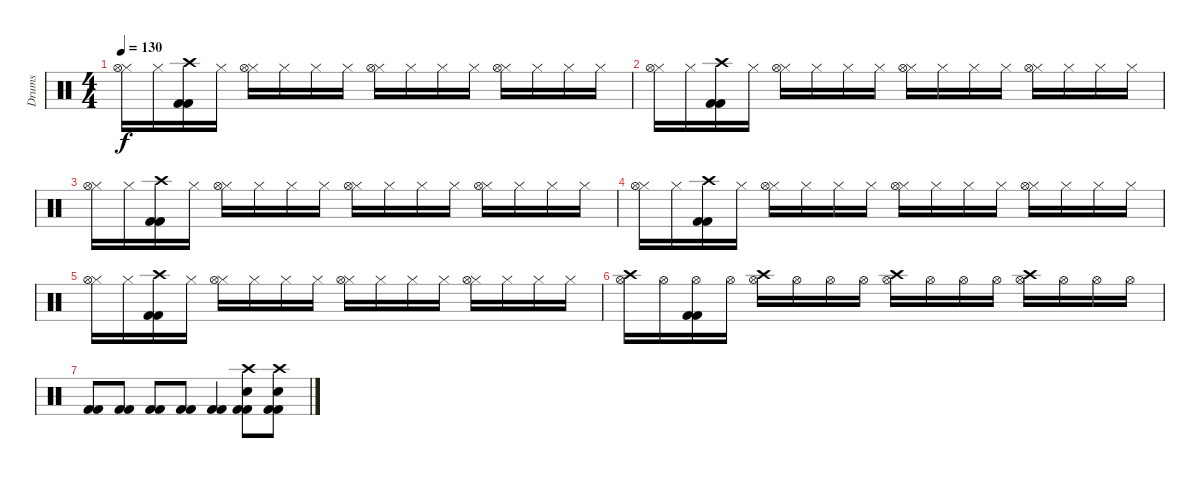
\track ("Drums" "Drums") {instrument percussion}
\staff {score}
\articulation defaults
\ts (4 4)
\tempo 130
\clef neutral
\ks c
("Hi-Hat (closed)" "Hi-Hat (open)").16{dy f} "Hi-Hat (closed)".16 ("Crash high (hit)" "Kick (hit) 2" "Kick (hit) 2").16 "Hi-Hat (closed)".16 ("Hi-Hat (closed)" "Hi-Hat (open)").16 "Hi-Hat (closed)".16 "Hi-Hat (closed)".16 "Hi-Hat (closed)".16 ("Hi-Hat (closed)" "Hi-Hat (open)").16 "Hi-Hat (closed)".16 "Hi-Hat (closed)".16 "Hi-Hat (closed)".16 ("Hi-Hat (closed)" "Hi-Hat (open)").16 "Hi-Hat (closed)".16 "Hi-Hat (closed)".16 "Hi-Hat (closed)".16 |
("Hi-Hat (closed)" "Hi-Hat (open)").16 "Hi-Hat (closed)".16 ("Crash high (hit)" "Kick (hit) 2" "Kick (hit) 2").16 "Hi-Hat (closed)".16 ("Hi-Hat (closed)" "Hi-Hat (open)").16 "Hi-Hat (closed)".16 "Hi-Hat (closed)".16 "Hi-Hat (closed)".16 ("Hi-Hat (closed)" "Hi-Hat (open)").16 "Hi-Hat (closed)".16 "Hi-Hat (closed)".16 "Hi-Hat (closed)".16 ("Hi-Hat (closed)" "Hi-Hat (open)").16 "Hi-Hat (closed)".16 "Hi-Hat (closed)".16 "Hi-Hat (closed)".16 |
("Hi-Hat (closed)" "Hi-Hat (open)").16 "Hi-Hat (closed)".16 ("Crash high (hit)" "Kick (hit) 2" "Kick (hit) 2").16 "Hi-Hat (closed)".16 ("Hi-Hat (closed)" "Hi-Hat (open)").16 "Hi-Hat (closed)".16 "Hi-Hat (closed)".16 "Hi-Hat (closed)".16 ("Hi-Hat (closed)" "Hi-Hat (open)").16 "Hi-Hat (closed)".16 "Hi-Hat (closed)".16 "Hi-Hat (closed)".16 ("Hi-Hat (closed)" "Hi-Hat (open)").16 "Hi-Hat (closed)".16 "Hi-Hat (closed)".16 "Hi-Hat (closed)".16 |
("Hi-Hat (closed)" "Hi-Hat (open)").16 "Hi-Hat (closed)".16 ("Crash high (hit)" "Kick (hit) 2" "Kick (hit) 2").16 "Hi-Hat (closed)".16 ("Hi-Hat (closed)" "Hi-Hat (open)").16 "Hi-Hat (closed)".16 "Hi-Hat (closed)".16 "Hi-Hat (closed)".16 ("Hi-Hat (closed)" "Hi-Hat (open)").16 "Hi-Hat (closed)".16 "Hi-Hat (closed)".16 "Hi-Hat (closed)".16 ("Hi-Hat (closed)" "Hi-Hat (open)").16 "Hi-Hat (closed)".16 "Hi-Hat (closed)".16 "Hi-Hat (closed)".16 |
("Hi-Hat (closed)" "Hi-Hat (open)").16 "Hi-Hat (closed)".16 ("Crash high (hit)" "Kick (hit) 2" "Kick (hit) 2").16 "Hi-Hat (closed)".16 ("Hi-Hat (closed)" "Hi-Hat (open)").16 "Hi-Hat (closed)".16 "Hi-Hat (closed)".16 "Hi-Hat (closed)".16 ("Hi-Hat (closed)" "Hi-Hat (open)").16 "Hi-Hat (closed)".16 "Hi-Hat (closed)".16 "Hi-Hat (closed)".16 ("Hi-Hat (closed)" "Hi-Hat (open)").16 "Hi-Hat (closed)".16 "Hi-Hat (closed)".16 "Hi-Hat (closed)".16 |
("Hi-Hat (open)" "Crash high (hit)").16 "Hi-Hat (open)".16 ("Hi-Hat (open)" "Kick (hit) 2" "Kick (hit) 2").16 "Hi-Hat (open)".16 ("Hi-Hat (open)" "Crash high (hit)").16 "Hi-Hat (open)".16 "Hi-Hat (open)".16 "Hi-Hat (open)".16 ("Hi-Hat (open)" "Crash high (hit)").16 "Hi-Hat (open)".16 "Hi-Hat (open)".16 "Hi-Hat (open)".16 ("Hi-Hat (open)" "Crash high (hit)").16 "Hi-Hat (open)".16 "Hi-Hat (open)".16 "Hi-Hat (open)".16 |
("Kick (hit) 2" "Kick (hit) 2").8 ("Kick (hit) 2" "Kick (hit) 2").8 ("Kick (hit) 2" "Kick (hit) 2").8 ("Kick (hit) 2" "Kick (hit) 2").8 ("Kick (hit) 2" "Kick (hit) 2").4 ("Crash high (hit)" "Electric Snare (hit)" "Kick (hit) 2" "Kick (hit) 2").8 ("Crash high (hit)" "Electric Snare (hit)" "Kick (hit) 2" "Kick (hit) 2").8
